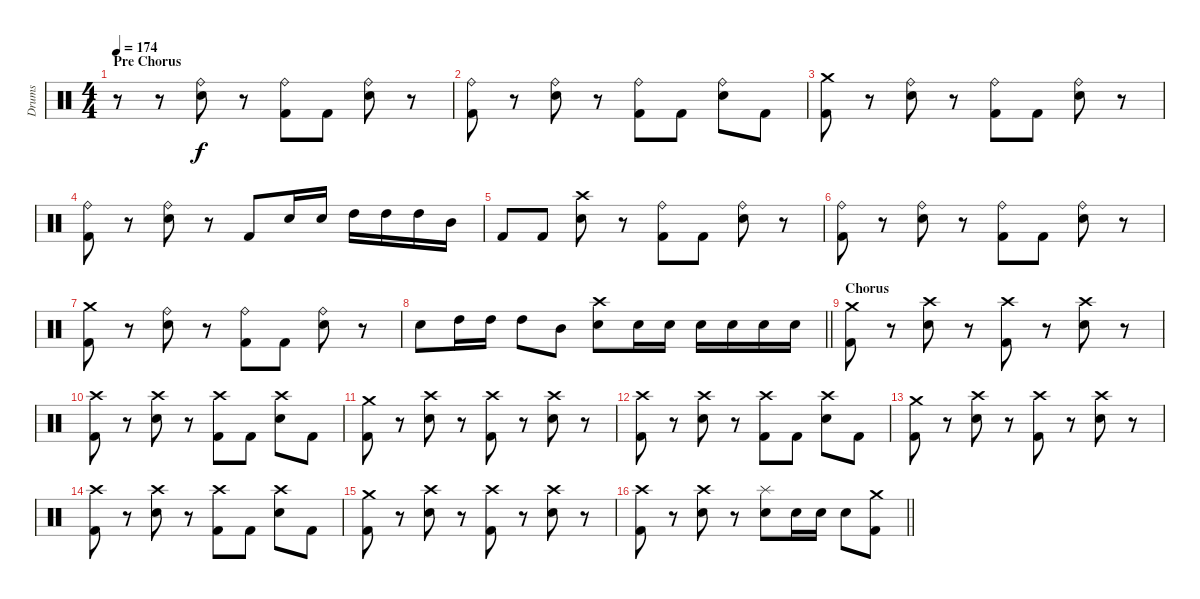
\track ("Drums" "Drums") {instrument percussion}
\staff {score}
\articulation defaults
\ts (4 4)
\section ("" "Pre Chorus")
\tempo 174
\clef neutral
\ks c
r.8{dy f} r.8 ("Ride (bell)" "Electric Snare (hit)").8 r.8 ("Ride (bell)" "Kick (hit) 2").8 "Kick (hit) 2".8 ("Ride (bell)" "Electric Snare (hit)").8 r.8 |
("Ride (bell)" "Kick (hit) 2").8 r.8 ("Ride (bell)" "Electric Snare (hit)").8 r.8 ("Ride (bell)" "Kick (hit) 2").8 "Kick (hit) 2".8 ("Ride (bell)" "Electric Snare (hit)").8 "Kick (hit) 2".8 |
("Crash medium (hit)" "Kick (hit) 2").8 r.8 ("Ride (bell)" "Electric Snare (hit)").8 r.8 ("Ride (bell)" "Kick (hit) 2").8 "Kick (hit) 2".8 ("Ride (bell)" "Electric Snare (hit)").8 r.8 |
("Ride (bell)" "Kick (hit) 2").8 r.8 ("Ride (bell)" "Electric Snare (hit)").8 r.8 "Kick (hit) 2".8 "Electric Snare (hit)".16 "Electric Snare (hit)".16 "High Tom (hit)".16 "High Tom (hit)".16 "High Tom (hit)".16 "Mid Tom (hit)".16 |
"Kick (hit) 2".8 "Kick (hit) 2".8 ("Crash high (hit)" "Electric Snare (hit)").8 r.8 ("Ride (bell)" "Kick (hit) 2").8 "Kick (hit) 2".8 ("Ride (bell)" "Electric Snare (hit)").8 r.8 |
("Ride (bell)" "Kick (hit) 2").8 r.8 ("Ride (bell)" "Electric Snare (hit)").8 r.8 ("Ride (bell)" "Kick (hit) 2").8 "Kick (hit) 2".8 ("Ride (bell)" "Electric Snare (hit)").8 r.8 |
("Crash medium (hit)" "Kick (hit) 2").8 r.8 ("Ride (bell)" "Electric Snare (hit)").8 r.8 ("Ride (bell)" "Kick (hit) 2").8 "Kick (hit) 2".8 ("Ride (bell)" "Electric Snare (hit)").8 r.8 |
\barLineRight lightlight "Electric Snare (hit)".8 "High Tom (hit)".16 "High Tom (hit)".16 "High Tom (hit)".8 "Mid Tom (hit)".8
("Crash high (hit)" "Electric Snare (hit)").8 "Electric Snare (hit)".16 "Electric Snare (hit)".16 "Electric Snare (hit)".16 "Electric Snare (hit)".16 "Electric Snare (hit)".16 "Electric Snare (hit)".16 |
\section ("" "Chorus")
("Crash medium (hit)" "Kick (hit) 2").8 r.8 ("Crash high (hit)" "Electric Snare (hit)").8 r.8 ("Crash high (hit)" "Kick (hit) 2").8 r.8 ("Crash high (hit)" "Electric Snare (hit)").8 r.8 |
("Crash high (hit)" "Kick (hit) 2").8 r.8 ("Crash high (hit)" "Electric Snare (hit)").8 r.8 ("Crash high (hit)" "Kick (hit) 2").8 "Kick (hit) 2".8 ("Crash high (hit)" "Electric Snare (hit)").8 "Kick (hit) 2".8 |
("Crash medium (hit)" "Kick (hit) 2").8 r.8 ("Crash high (hit)" "Electric Snare (hit)").8 r.8 ("Crash high (hit)" "Kick (hit) 2").8 r.8 ("Crash high (hit)" "Electric Snare (hit)").8 r.8 |
("Crash high (hit)" "Kick (hit) 2").8 r.8 ("Crash high (hit)" "Electric Snare (hit)").8 r.8 ("Crash high (hit)" "Kick (hit) 2").8 "Kick (hit) 2".8 ("Crash high (hit)" "Electric Snare (hit)").8 "Kick (hit) 2".8 |
("Crash medium (hit)" "Kick (hit) 2").8 r.8 ("Crash high (hit)" "Electric Snare (hit)").8 r.8 ("Crash high (hit)" "Kick (hit) 2").8 r.8 ("Crash high (hit)" "Electric Snare (hit)").8 r.8 |
("Crash high (hit)" "Kick (hit) 2").8 r.8 ("Crash high (hit)" "Electric Snare (hit)").8 r.8 ("Crash high (hit)" "Kick (hit) 2").8 "Kick (hit) 2".8 ("Crash high (hit)" "Electric Snare (hit)").8 "Kick (hit) 2".8 |
("Crash medium (hit)" "Kick (hit) 2").8 r.8 ("Crash high (hit)" "Electric Snare (hit)").8 r.8 ("Crash high (hit)" "Kick (hit) 2").8 r.8 ("Crash high (hit)" "Electric Snare (hit)").8 r.8 |
\barLineRight lightlight
("Crash high (hit)" "Kick (hit) 2").8 r.8 ("Crash high (hit)" "Electric Snare (hit)").8 r.8 ("Splash (hit)" "Electric Snare (hit)").8 "Electric Snare (hit)".16 "Electric Snare (hit)".16 "Electric Snare (hit)".8 ("Crash medium (hit)" "Kick (hit) 2").8
